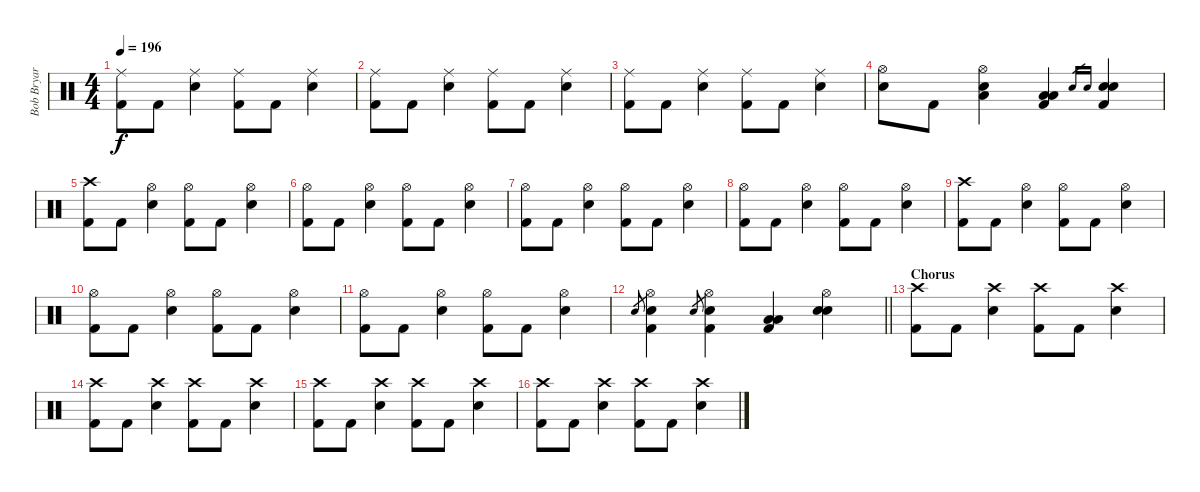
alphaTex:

\track ("Bob Bryar (percussion)" "Bob Bryar ") {instrument percussion}
\staff {score}
\articulation defaults
\ts (4 4)
\tempo 196
\clef neutral
\ks c
("Ride (middle)" "Kick (hit) 2").8{dy f} "Kick (hit) 2".8 ("Ride (middle)" "Electric Snare (hit)").4 ("Ride (middle)" "Kick (hit) 2").8 "Kick (hit) 2".8 ("Ride (middle)" "Electric Snare (hit)").4 |
("Ride (middle)" "Kick (hit) 2").8 "Kick (hit) 2".8 ("Ride (middle)" "Electric Snare (hit)").4 ("Ride (middle)" "Kick (hit) 2").8 "Kick (hit) 2".8 ("Ride (middle)" "Electric Snare (hit)").4 |
("Ride (middle)" "Kick (hit) 2").8 "Kick (hit) 2".8 ("Ride (middle)" "Electric Snare (hit)").4 ("Ride (middle)" "Kick (hit) 2").8 "Kick (hit) 2".8 ("Ride (middle)" "Electric Snare (hit)").4 |
("Hi-Hat (open)" "Electric Snare (hit)").8 "Kick (hit) 2".8 ("Hi-Hat (open)" "Low Floor Tom (hit)" "Electric Snare (hit)").4 ("Low Floor Tom (hit)" "Low Floor Tom (hit)" "Kick (hit) 2").4 "Electric Snare (hit)".16{gr} "Electric Snare (hit)".16{gr} ("Electric Snare (hit)" "Electric Snare (hit)" "Kick (hit) 2").4 |
("Crash high (hit)" "Kick (hit) 2").8 "Kick (hit) 2".8 ("Hi-Hat (open)" "Electric Snare (hit)").4 ("Hi-Hat (open)" "Kick (hit) 2").8 "Kick (hit) 2".8 ("Hi-Hat (open)" "Electric Snare (hit)").4 |
("Hi-Hat (open)" "Kick (hit) 2").8 "Kick (hit) 2".8 ("Hi-Hat (open)" "Electric Snare (hit)").4 ("Hi-Hat (open)" "Kick (hit) 2").8 "Kick (hit) 2".8 ("Hi-Hat (open)" "Electric Snare (hit)").4 |
("Hi-Hat (open)" "Kick (hit) 2").8 "Kick (hit) 2".8 ("Hi-Hat (open)" "Electric Snare (hit)").4 ("Hi-Hat (open)" "Kick (hit) 2").8 "Kick (hit) 2".8 ("Hi-Hat (open)" "Electric Snare (hit)").4 |
("Hi-Hat (open)" "Kick (hit) 2").8 "Kick (hit) 2".8 ("Hi-Hat (open)" "Electric Snare (hit)").4 ("Hi-Hat (open)" "Kick (hit) 2").8 "Kick (hit) 2".8 ("Hi-Hat (open)" "Electric Snare (hit)").4 |
("Crash high (hit)" "Kick (hit) 2").8 "Kick (hit) 2".8 ("Hi-Hat (open)" "Electric Snare (hit)").4 ("Hi-Hat (open)" "Kick (hit) 2").8 "Kick (hit) 2".8 ("Hi-Hat (open)" "Electric Snare (hit)").4 |
("Hi-Hat (open)" "Kick (hit) 2").8 "Kick (hit) 2".8 ("Hi-Hat (open)" "Electric Snare (hit)").4 ("Hi-Hat (open)" "Kick (hit) 2").8 "Kick (hit) 2".8 ("Hi-Hat (open)" "Electric Snare (hit)").4 |
("Hi-Hat (open)" "Kick (hit) 2").8 "Kick (hit) 2".8 ("Hi-Hat (open)" "Electric Snare (hit)").4 ("Hi-Hat (open)" "Kick (hit) 2").8 "Kick (hit) 2".8 ("Hi-Hat (open)" "Electric Snare (hit)").4 |
\barLineRight lightlight "Electric Snare (hit)".8{gr}
("Hi-Hat (open)" "Electric Snare (hit)" "Kick (hit) 2").4 "Electric Snare (hit)".8{gr} ("Hi-Hat (open)" "Electric Snare (hit)" "Kick (hit) 2").4 ("Low Floor Tom (hit)" "Low Floor Tom (hit)" "Kick (hit) 2").4 ("Hi-Hat (open)" "Electric Snare (hit)" "Electric Snare (hit)").4 |
\section ("" "Chorus")
("Crash high (hit)" "Kick (hit) 2").8 "Kick (hit) 2".8 ("Crash high (hit)" "Electric Snare (hit)").4 ("Crash high (hit)" "Kick (hit) 2").8 "Kick (hit) 2".8 ("Crash high (hit)" "Electric Snare (hit)").4 |
("Crash high (hit)" "Kick (hit) 2").8 "Kick (hit) 2".8 ("Crash high (hit)" "Electric Snare (hit)").4 ("Crash high (hit)" "Kick (hit) 2").8 "Kick (hit) 2".8 ("Crash high (hit)" "Electric Snare (hit)").4 |
("Crash high (hit)" "Kick (hit) 2").8 "Kick (hit) 2".8 ("Crash high (hit)" "Electric Snare (hit)").4 ("Crash high (hit)" "Kick (hit) 2").8 "Kick (hit) 2".8 ("Crash high (hit)" "Electric Snare (hit)").4 |
("Crash high (hit)" "Kick (hit) 2").8 "Kick (hit) 2".8 ("Crash high (hit)" "Electric Snare (hit)").4 ("Crash high (hit)" "Kick (hit) 2").8 "Kick (hit) 2".8 ("Crash high (hit)" "Electric Snare (hit)").4
